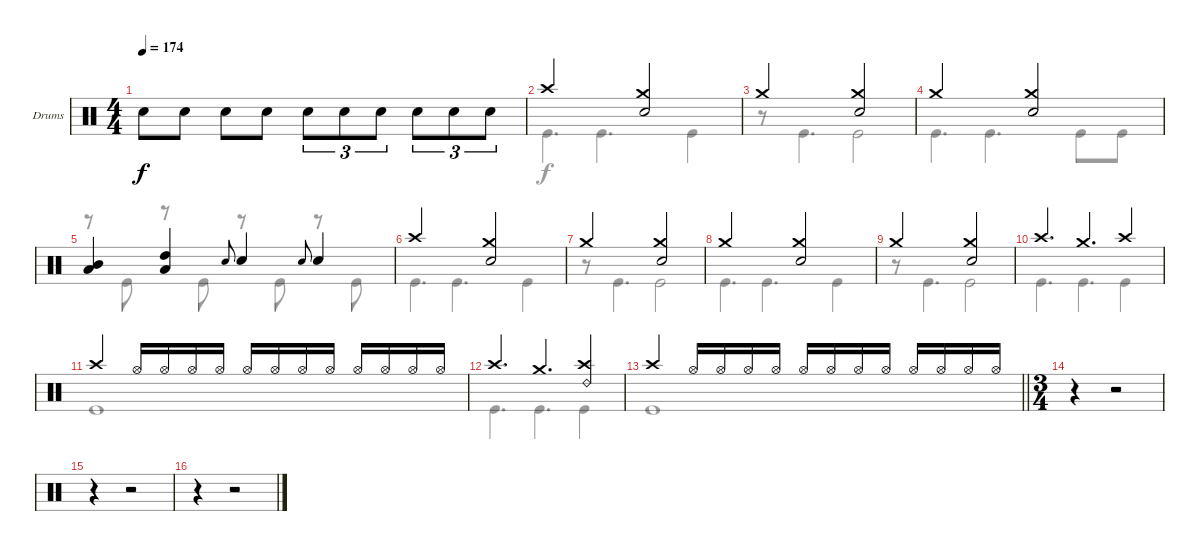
\bracketExtendMode groupsimilarinstruments
\firstSystemTrackNameOrientation horizontal
\otherSystemsTrackNameOrientation horizontal
\track ("Drumkit" "Drums") {instrument percussion}
\staff {score}
\articulation defaults
\voice
\ts (4 4)
\tempo 174
\clef neutral
\ks c "Snare (hit) 2".8{dy f} "Snare (hit) 2".8 "Snare (hit) 2".8 "Snare (hit) 2".8 "Snare (hit) 2".8{tu (3 2)} "Snare (hit) 2".8{tu (3 2)} "Snare (hit) 2".8{tu (3 2)} "Snare (hit) 2".8{tu (3 2)} "Snare (hit) 2".8{tu (3 2)} "Snare (hit) 2".8{tu (3 2)}
|
"Crash high (hit)".2 ("Crash medium (hit)" "Snare (hit) 2").2 |
"Crash medium (hit)".2 ("Crash medium (hit)" "Snare (hit) 2").2 |
"Crash medium (hit)".2 ("Crash medium (hit)" "Snare (hit) 2").2 |
("Mid Tom (hit)" "Low Tom (hit)").4 ("High Tom (hit)" "Low Tom (hit)").4 "Snare (hit) 2".8{gr onbeat} "Snare (hit) 2".4 "Snare (hit) 2".8{gr onbeat} "Snare (hit) 2".4 |
"Crash high (hit)".2 ("Crash medium (hit)" "Snare (hit) 2").2 |
"Crash medium (hit)".2 ("Crash medium (hit)" "Snare (hit) 2").2 |
"Crash medium (hit)".2 ("Crash medium (hit)" "Snare (hit) 2").2 |
"Crash medium (hit)".2 ("Crash medium (hit)" "Snare (hit) 2").2 |
"Crash high (hit)".4{d} "Crash medium (hit)".4{d} "Crash high (hit)".4 |
"Crash high (hit)".4 "Hi-Hat (open)".16 "Hi-Hat (open)".16 "Hi-Hat (open)".16 "Hi-Hat (open)".16 "Hi-Hat (open)".16 "Hi-Hat (open)".16 "Hi-Hat (open)".16 "Hi-Hat (open)".16 "Hi-Hat (open)".16 "Hi-Hat (open)".16 "Hi-Hat (open)".16 "Hi-Hat (open)".16 |
"Crash high (hit)".4{d} "Crash medium (hit)".4{d} ("Crash high (hit)" "Ride (bell) 2").4 |
\barLineRight lightlight "Crash high (hit)".4 "Hi-Hat (open)".16 "Hi-Hat (open)".16 "Hi-Hat (open)".16 "Hi-Hat (open)".16 "Hi-Hat (open)".16 "Hi-Hat (open)".16 "Hi-Hat (open)".16 "Hi-Hat (open)".16 "Hi-Hat (open)".16 "Hi-Hat (open)".16 "Hi-Hat (open)".16 "Hi-Hat (open)".16
|
\ts (3 4)
\beaming (8 2 2 2)
\section ("" "")
r.4 r.2 |
r.4 r.2 |
r.4 r.2
\voice
\clef neutral
\ottava regular
\simile none
\ks c
|
"Kick (hit)".4{d} "Kick (hit)".4{d} "Kick (hit)".4 |
r.8 "Kick (hit)".4{d} "Kick (hit)".2 |
"Kick (hit)".4{d} "Kick (hit)".4{d} "Kick (hit)".8 "Kick (hit)".8 |
r.8 "Kick (hit)".8 r.8 "Kick (hit)".8 r.8 "Kick (hit)".8 r.8 "Kick (hit)".8 |
"Kick (hit)".4{d} "Kick (hit)".4{d} "Kick (hit)".4 |
r.8 "Kick (hit)".4{d} "Kick (hit)".2 |
"Kick (hit)".4{d} "Kick (hit)".4{d} "Kick (hit)".4 |
r.8 "Kick (hit)".4{d} "Kick (hit)".2 |
"Kick (hit)".4{d} "Kick (hit)".4{d} "Kick (hit)".4 |
"Kick (hit)".1 |
"Kick (hit)".4{d} "Kick (hit)".4{d} "Kick (hit)".4 |
\barLineRight lightlight "Kick (hit)".1
|
|
|
